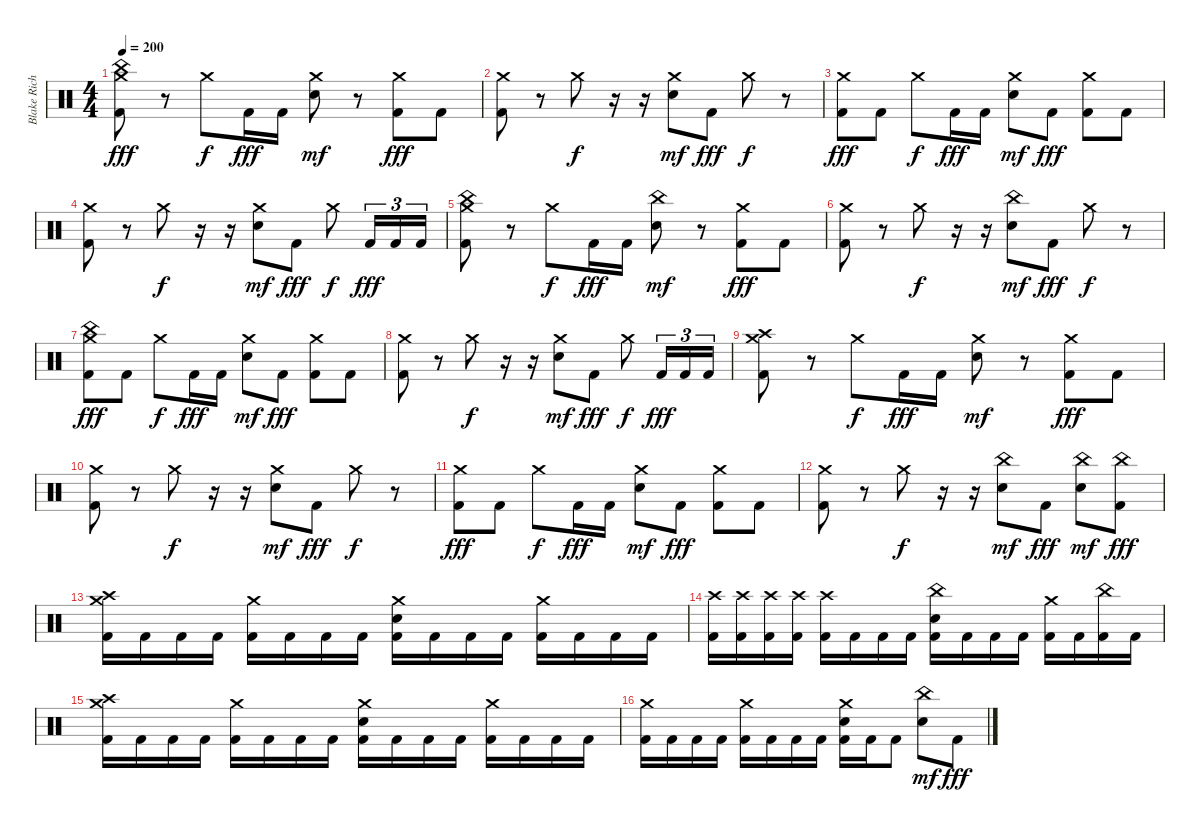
\track ("Blake Richardson" "Blake Rich") {instrument percussion}
\staff {score}
\articulation defaults
\ts (4 4)
\tempo 200
\clef neutral
\ks c
("Crash medium (hit)" "China (hit)" "Kick (hit) 2").8{dy fff} r.8 "Crash medium (hit)".8{dy f} "Kick (hit) 2".16{dy fff} "Kick (hit) 2".16 ("Crash medium (hit)" "Electric Snare (hit)").8{dy mf} r.8 ("Crash medium (hit)" "Kick (hit) 2").8{dy fff} "Kick (hit) 2".8 |
("Crash medium (hit)" "Kick (hit) 2").8 r.8 "Crash medium (hit)".8{dy f} r.16 r.16 ("Crash medium (hit)" "Electric Snare (hit)").8{dy mf} "Kick (hit) 2".8{dy fff} "Crash medium (hit)".8{dy f} r.8 |
("Crash medium (hit)" "Kick (hit) 2").8{dy fff} "Kick (hit) 2".8 "Crash medium (hit)".8{dy f} "Kick (hit) 2".16{dy fff} "Kick (hit) 2".16 ("Crash medium (hit)" "Electric Snare (hit)").8{dy mf} "Kick (hit) 2".8{dy fff} ("Crash medium (hit)" "Kick (hit) 2").8 "Kick (hit) 2".8 |
("Crash medium (hit)" "Kick (hit) 2").8 r.8 "Crash medium (hit)".8{dy f} r.16 r.16 ("Crash medium (hit)" "Electric Snare (hit)").8{dy mf} "Kick (hit) 2".8{dy fff} "Crash medium (hit)".8{dy f} "Kick (hit) 2".16{tu (3 2) dy fff} "Kick (hit) 2".16{tu (3 2)} "Kick (hit) 2".16{tu (3 2)} |
("Crash medium (hit)" "China (hit)" "Kick (hit) 2").8 r.8 "Crash medium (hit)".8{dy f} "Kick (hit) 2".16{dy fff} "Kick (hit) 2".16 ("China (hit)" "Electric Snare (hit)").8{dy mf} r.8 ("Crash medium (hit)" "Kick (hit) 2").8{dy fff} "Kick (hit) 2".8 |
("Crash medium (hit)" "Kick (hit) 2").8 r.8 "Crash medium (hit)".8{dy f} r.16 r.16 ("China (hit)" "Electric Snare (hit)").8{dy mf} "Kick (hit) 2".8{dy fff} "Crash medium (hit)".8{dy f} r.8 |
("Crash medium (hit)" "China (hit)" "Kick (hit) 2").8{dy fff} "Kick (hit) 2".8 "Crash medium (hit)".8{dy f} "Kick (hit) 2".16{dy fff} "Kick (hit) 2".16 ("Crash medium (hit)" "Electric Snare (hit)").8{dy mf} "Kick (hit) 2".8{dy fff} ("Crash medium (hit)" "Kick (hit) 2").8 "Kick (hit) 2".8 |
("Crash medium (hit)" "Kick (hit) 2").8 r.8 "Crash medium (hit)".8{dy f} r.16 r.16 ("Crash medium (hit)" "Electric Snare (hit)").8{dy mf} "Kick (hit) 2".8{dy fff} "Crash medium (hit)".8{dy f} "Kick (hit) 2".16{tu (3 2) dy fff} "Kick (hit) 2".16{tu (3 2)} "Kick (hit) 2".16{tu (3 2)} |
("Crash medium (hit)" "Crash high (hit)" "Kick (hit) 2").8 r.8 "Crash medium (hit)".8{dy f} "Kick (hit) 2".16{dy fff} "Kick (hit) 2".16 ("Crash medium (hit)" "Electric Snare (hit)").8{dy mf} r.8 ("Crash medium (hit)" "Kick (hit) 2").8{dy fff} "Kick (hit) 2".8 |
("Crash medium (hit)" "Kick (hit) 2").8 r.8 "Crash medium (hit)".8{dy f} r.16 r.16 ("Crash medium (hit)" "Electric Snare (hit)").8{dy mf} "Kick (hit) 2".8{dy fff} "Crash medium (hit)".8{dy f} r.8 |
("Crash medium (hit)" "Kick (hit) 2").8{dy fff} "Kick (hit) 2".8 "Crash medium (hit)".8{dy f} "Kick (hit) 2".16{dy fff} "Kick (hit) 2".16 ("Crash medium (hit)" "Electric Snare (hit)").8{dy mf} "Kick (hit) 2".8{dy fff} ("Crash medium (hit)" "Kick (hit) 2").8 "Kick (hit) 2".8 |
("Crash medium (hit)" "Kick (hit) 2").8 r.8 "Crash medium (hit)".8{dy f} r.16 r.16 ("China (hit)" "Electric Snare (hit)").8{dy mf} "Kick (hit) 2".8{dy fff} ("China (hit)" "Electric Snare (hit)").8{dy mf} ("China (hit)" "Kick (hit) 2").8{dy fff} |
("Crash medium (hit)" "Crash high (hit)" "Kick (hit) 2").16 "Kick (hit) 2".16 "Kick (hit) 2".16 "Kick (hit) 2".16 ("Crash medium (hit)" "Kick (hit) 2").16 "Kick (hit) 2".16 "Kick (hit) 2".16 "Kick (hit) 2".16 ("Crash medium (hit)" "Electric Snare (hit)" "Kick (hit) 2").16 "Kick (hit) 2".16 "Kick (hit) 2".16 "Kick (hit) 2".16 ("Crash medium (hit)" "Kick (hit) 2").16 "Kick (hit) 2".16 "Kick (hit) 2".16 "Kick (hit) 2".16 |
("Crash high (hit)" "Kick (hit) 2").16 ("Crash high (hit)" "Kick (hit) 2").16 ("Crash high (hit)" "Kick (hit) 2").16 ("Crash high (hit)" "Kick (hit) 2").16 ("Crash high (hit)" "Kick (hit) 2").16 "Kick (hit) 2".16 "Kick (hit) 2".16 "Kick (hit) 2".16 ("China (hit)" "Electric Snare (hit)" "Kick (hit) 2").16 "Kick (hit) 2".16 "Kick (hit) 2".16 "Kick (hit) 2".16 ("Crash medium (hit)" "Kick (hit) 2").16 "Kick (hit) 2".16 ("China (hit)" "Kick (hit) 2").16 "Kick (hit) 2".16 |
("Crash medium (hit)" "Crash high (hit)" "Kick (hit) 2").16 "Kick (hit) 2".16 "Kick (hit) 2".16 "Kick (hit) 2".16 ("Crash medium (hit)" "Kick (hit) 2").16 "Kick (hit) 2".16 "Kick (hit) 2".16 "Kick (hit) 2".16 ("Crash medium (hit)" "Electric Snare (hit)" "Kick (hit) 2").16 "Kick (hit) 2".16 "Kick (hit) 2".16 "Kick (hit) 2".16 ("Crash medium (hit)" "Kick (hit) 2").16 "Kick (hit) 2".16 "Kick (hit) 2".16 "Kick (hit) 2".16 |
("Crash medium (hit)" "Kick (hit) 2").16 "Kick (hit) 2".16 "Kick (hit) 2".16 "Kick (hit) 2".16 ("Crash medium (hit)" "Kick (hit) 2").16 "Kick (hit) 2".16 "Kick (hit) 2".16 "Kick (hit) 2".16 ("Crash medium (hit)" "Electric Snare (hit)" "Kick (hit) 2").16 "Kick (hit) 2".16 "Kick (hit) 2".8 ("China (hit)" "Electric Snare (hit)").8{dy mf} "Kick (hit) 2".8{dy fff}
